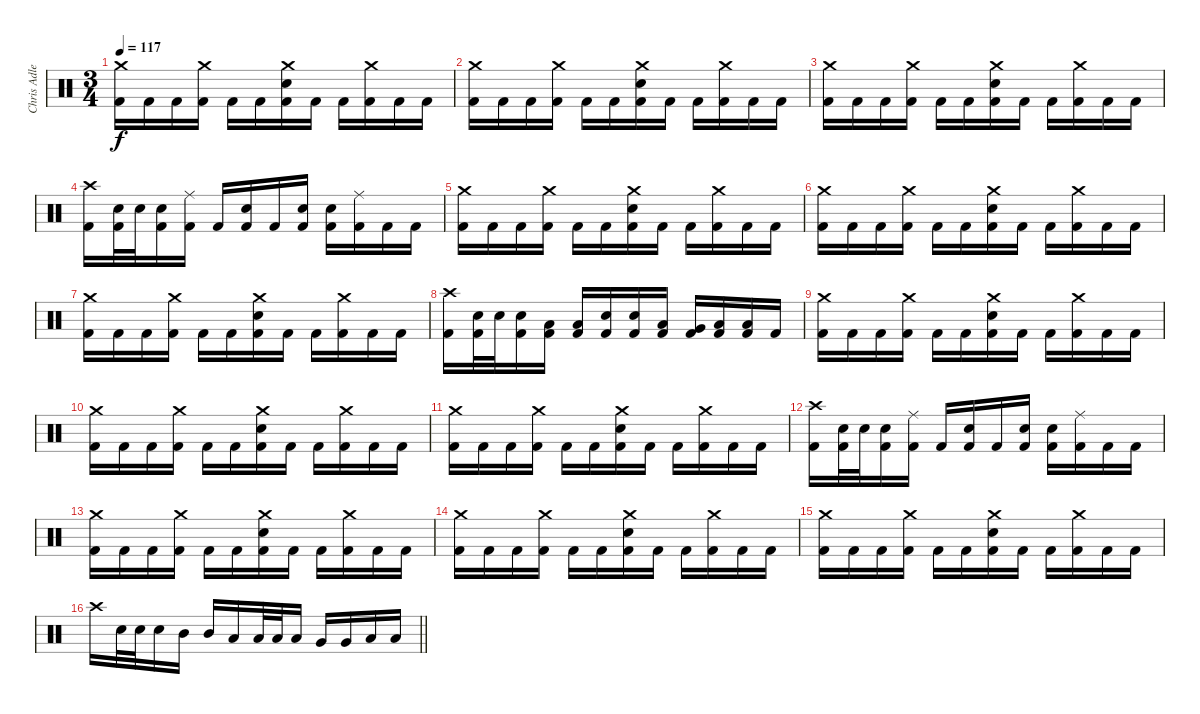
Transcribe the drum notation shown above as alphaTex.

\track ("Chris Adler" "Chris Adle") {instrument percussion}
\staff {score}
\articulation defaults
\ts (3 4)
\tempo 117
\clef neutral
\ks c
("Crash medium (hit)" "Kick (hit) 2").16{dy f} "Kick (hit) 2".16 "Kick (hit) 2".16 ("Crash medium (hit)" "Kick (hit) 2").16 "Kick (hit) 2".16 "Kick (hit) 2".16 ("Crash medium (hit)" "Electric Snare (hit)" "Kick (hit) 2").16 "Kick (hit) 2".16 "Kick (hit) 2".16 ("Crash medium (hit)" "Kick (hit) 2").16 "Kick (hit) 2".16 "Kick (hit) 2".16 |
("Crash medium (hit)" "Kick (hit) 2").16 "Kick (hit) 2".16 "Kick (hit) 2".16 ("Crash medium (hit)" "Kick (hit) 2").16 "Kick (hit) 2".16 "Kick (hit) 2".16 ("Crash medium (hit)" "Electric Snare (hit)" "Kick (hit) 2").16 "Kick (hit) 2".16 "Kick (hit) 2".16 ("Crash medium (hit)" "Kick (hit) 2").16 "Kick (hit) 2".16 "Kick (hit) 2".16 |
("Crash medium (hit)" "Kick (hit) 2").16 "Kick (hit) 2".16 "Kick (hit) 2".16 ("Crash medium (hit)" "Kick (hit) 2").16 "Kick (hit) 2".16 "Kick (hit) 2".16 ("Crash medium (hit)" "Electric Snare (hit)" "Kick (hit) 2").16 "Kick (hit) 2".16 "Kick (hit) 2".16 ("Crash medium (hit)" "Kick (hit) 2").16 "Kick (hit) 2".16 "Kick (hit) 2".16 |
("Crash high (hit)" "Kick (hit) 2").16 ("Electric Snare (hit)" "Kick (hit) 2").32 "Electric Snare (hit)".32 ("Electric Snare (hit)" "Kick (hit) 2").16 ("Ride (middle)" "Kick (hit) 2").16 "Kick (hit) 2".16 ("Electric Snare (hit)" "Kick (hit) 2").16 "Kick (hit) 2".16 ("Electric Snare (hit)" "Kick (hit) 2").16 ("Electric Snare (hit)" "Kick (hit) 2").16 ("Ride (middle)" "Kick (hit) 2").16 "Kick (hit) 2".16 "Kick (hit) 2".16 |
("Crash medium (hit)" "Kick (hit) 2").16 "Kick (hit) 2".16 "Kick (hit) 2".16 ("Crash medium (hit)" "Kick (hit) 2").16 "Kick (hit) 2".16 "Kick (hit) 2".16 ("Crash medium (hit)" "Electric Snare (hit)" "Kick (hit) 2").16 "Kick (hit) 2".16 "Kick (hit) 2".16 ("Crash medium (hit)" "Kick (hit) 2").16 "Kick (hit) 2".16 "Kick (hit) 2".16 |
("Crash medium (hit)" "Kick (hit) 2").16 "Kick (hit) 2".16 "Kick (hit) 2".16 ("Crash medium (hit)" "Kick (hit) 2").16 "Kick (hit) 2".16 "Kick (hit) 2".16 ("Crash medium (hit)" "Electric Snare (hit)" "Kick (hit) 2").16 "Kick (hit) 2".16 "Kick (hit) 2".16 ("Crash medium (hit)" "Kick (hit) 2").16 "Kick (hit) 2".16 "Kick (hit) 2".16 |
("Crash medium (hit)" "Kick (hit) 2").16 "Kick (hit) 2".16 "Kick (hit) 2".16 ("Crash medium (hit)" "Kick (hit) 2").16 "Kick (hit) 2".16 "Kick (hit) 2".16 ("Crash medium (hit)" "Electric Snare (hit)" "Kick (hit) 2").16 "Kick (hit) 2".16 "Kick (hit) 2".16 ("Crash medium (hit)" "Kick (hit) 2").16 "Kick (hit) 2".16 "Kick (hit) 2".16 |
("Crash high (hit)" "Kick (hit) 2").16 ("Electric Snare (hit)" "Kick (hit) 2").32 "Electric Snare (hit)".32 ("Electric Snare (hit)" "Kick (hit) 2").16 ("Low Tom (hit)" "Kick (hit) 2").16 ("Low Tom (hit)" "Kick (hit) 2").16 ("Electric Snare (hit)" "Kick (hit) 2").16 ("Electric Snare (hit)" "Kick (hit) 2").16 ("Low Tom (hit)" "Kick (hit) 2").16 ("Very Low Tom (hit)" "Kick (hit) 2").16 ("Low Floor Tom (hit)" "Kick (hit) 2").16 ("Low Floor Tom (hit)" "Kick (hit) 2").16 "Kick (hit) 2".16 |
("Crash medium (hit)" "Kick (hit) 2").16 "Kick (hit) 2".16 "Kick (hit) 2".16 ("Crash medium (hit)" "Kick (hit) 2").16 "Kick (hit) 2".16 "Kick (hit) 2".16 ("Crash medium (hit)" "Electric Snare (hit)" "Kick (hit) 2").16 "Kick (hit) 2".16 "Kick (hit) 2".16 ("Crash medium (hit)" "Kick (hit) 2").16 "Kick (hit) 2".16 "Kick (hit) 2".16 |
("Crash medium (hit)" "Kick (hit) 2").16 "Kick (hit) 2".16 "Kick (hit) 2".16 ("Crash medium (hit)" "Kick (hit) 2").16 "Kick (hit) 2".16 "Kick (hit) 2".16 ("Crash medium (hit)" "Electric Snare (hit)" "Kick (hit) 2").16 "Kick (hit) 2".16 "Kick (hit) 2".16 ("Crash medium (hit)" "Kick (hit) 2").16 "Kick (hit) 2".16 "Kick (hit) 2".16 |
("Crash medium (hit)" "Kick (hit) 2").16 "Kick (hit) 2".16 "Kick (hit) 2".16 ("Crash medium (hit)" "Kick (hit) 2").16 "Kick (hit) 2".16 "Kick (hit) 2".16 ("Crash medium (hit)" "Electric Snare (hit)" "Kick (hit) 2").16 "Kick (hit) 2".16 "Kick (hit) 2".16 ("Crash medium (hit)" "Kick (hit) 2").16 "Kick (hit) 2".16 "Kick (hit) 2".16 |
("Crash high (hit)" "Kick (hit) 2").16 ("Electric Snare (hit)" "Kick (hit) 2").32 "Electric Snare (hit)".32 ("Electric Snare (hit)" "Kick (hit) 2").16 ("Ride (middle)" "Kick (hit) 2").16 "Kick (hit) 2".16 ("Electric Snare (hit)" "Kick (hit) 2").16 "Kick (hit) 2".16 ("Electric Snare (hit)" "Kick (hit) 2").16 ("Electric Snare (hit)" "Kick (hit) 2").16 ("Ride (middle)" "Kick (hit) 2").16 "Kick (hit) 2".16 "Kick (hit) 2".16 |
("Crash medium (hit)" "Kick (hit) 2").16 "Kick (hit) 2".16 "Kick (hit) 2".16 ("Crash medium (hit)" "Kick (hit) 2").16 "Kick (hit) 2".16 "Kick (hit) 2".16 ("Crash medium (hit)" "Electric Snare (hit)" "Kick (hit) 2").16 "Kick (hit) 2".16 "Kick (hit) 2".16 ("Crash medium (hit)" "Kick (hit) 2").16 "Kick (hit) 2".16 "Kick (hit) 2".16 |
("Crash medium (hit)" "Kick (hit) 2").16 "Kick (hit) 2".16 "Kick (hit) 2".16 ("Crash medium (hit)" "Kick (hit) 2").16 "Kick (hit) 2".16 "Kick (hit) 2".16 ("Crash medium (hit)" "Electric Snare (hit)" "Kick (hit) 2").16 "Kick (hit) 2".16 "Kick (hit) 2".16 ("Crash medium (hit)" "Kick (hit) 2").16 "Kick (hit) 2".16 "Kick (hit) 2".16 |
("Crash medium (hit)" "Kick (hit) 2").16 "Kick (hit) 2".16 "Kick (hit) 2".16 ("Crash medium (hit)" "Kick (hit) 2").16 "Kick (hit) 2".16 "Kick (hit) 2".16 ("Crash medium (hit)" "Electric Snare (hit)" "Kick (hit) 2").16 "Kick (hit) 2".16 "Kick (hit) 2".16 ("Crash medium (hit)" "Kick (hit) 2").16 "Kick (hit) 2".16 "Kick (hit) 2".16 |
\barLineRight lightlight "Crash high (hit)".16 "Electric Snare (hit)".32 "Electric Snare (hit)".32 "Electric Snare (hit)".16 "Mid Tom (hit)".16 "Mid Tom (hit)".16 "Low Tom (hit)".16 "Low Tom (hit)".32 "Low Tom (hit)".32 "Low Tom (hit)".16 "Very Low Tom (hit)".16 "Very Low Tom (hit)".16 "Low Floor Tom (hit)".16 "Low Floor Tom (hit)".16
